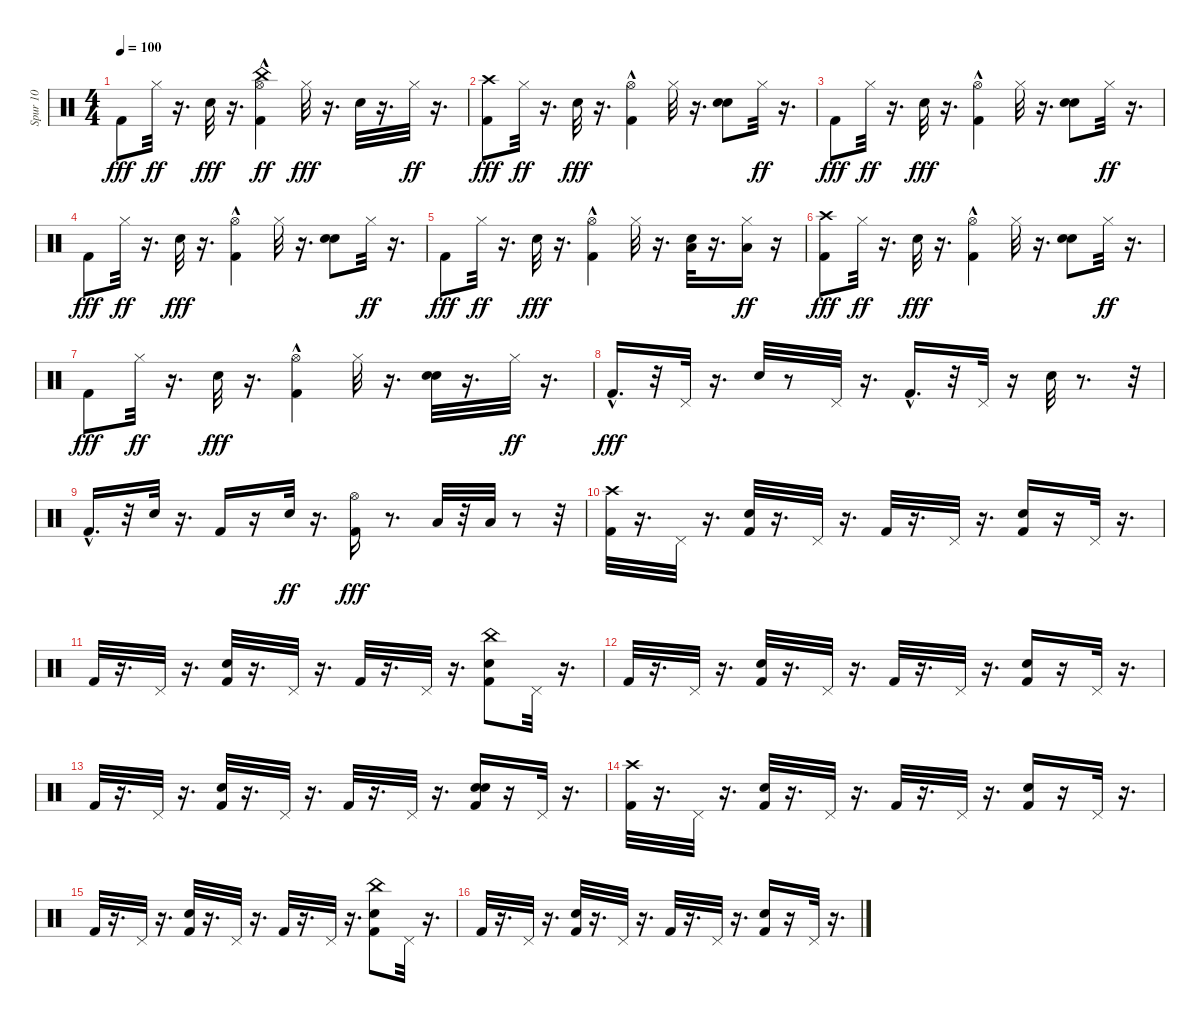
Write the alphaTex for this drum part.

\track ("Spur 10" "Spur 10") {instrument percussion}
\staff {score}
\articulation defaults
\ts (4 4)
\tempo 100
\clef neutral
\ks c "Kick (hit) 2".8{dy fff} "Hi-Hat (closed)".32{dy ff}
r.16{d} "Electric Snare (hit)".32{dy fff} r.16{d} ("Kick (hit) 2"{hac} "Hi-Hat (open)" "China (hit)"{hac}).4{dy ff} "Hi-Hat (closed)".32{dy fff} r.16{d} "Electric Snare (hit)".32 r.16{d} "Hi-Hat (closed)".32{dy ff} r.16{d} |
("Crash high (hit)" "Kick (hit) 2").8{dy fff} "Hi-Hat (closed)".32{dy ff} r.16{d} "Electric Snare (hit)".32{dy fff} r.16{d} ("Kick (hit) 2"{hac} "Hi-Hat (open)").4 "Hi-Hat (closed)".32 r.16{d} ("Electric Snare (hit)" "Electric Snare (hit)").8 "Hi-Hat (closed)".32{dy ff} r.16{d} |
"Kick (hit) 2".8{dy fff} "Hi-Hat (closed)".32{dy ff} r.16{d} "Electric Snare (hit)".32{dy fff} r.16{d} ("Kick (hit) 2"{hac} "Hi-Hat (open)").4 "Hi-Hat (closed)".32 r.16{d} ("Electric Snare (hit)" "Electric Snare (hit)").8 "Hi-Hat (closed)".32{dy ff} r.16{d} |
"Kick (hit) 2".8{dy fff} "Hi-Hat (closed)".32{dy ff} r.16{d} "Electric Snare (hit)".32{dy fff} r.16{d} ("Kick (hit) 2"{hac} "Hi-Hat (open)").4 "Hi-Hat (closed)".32 r.16{d} ("Electric Snare (hit)" "Electric Snare (hit)").8 "Hi-Hat (closed)".32{dy ff} r.16{d} |
"Kick (hit) 2".8{dy fff} "Hi-Hat (closed)".32{dy ff} r.16{d} "Electric Snare (hit)".32{dy fff} r.16{d} ("Kick (hit) 2"{hac} "Hi-Hat (open)").4 "Hi-Hat (closed)".32 r.16{d} ("Low Tom (hit)" "Electric Snare (hit)").32 r.16{d} ("Low Tom (hit)" "Hi-Hat (closed)").16{dy ff} r.16 |
("Crash high (hit)" "Kick (hit) 2").8{dy fff} "Hi-Hat (closed)".32{dy ff} r.16{d} "Electric Snare (hit)".32{dy fff} r.16{d} ("Kick (hit) 2"{hac} "Hi-Hat (open)").4 "Hi-Hat (closed)".32 r.16{d} ("Electric Snare (hit)" "Electric Snare (hit)").8 "Hi-Hat (closed)".32{dy ff} r.16{d} |
"Kick (hit) 2".8{dy fff} "Hi-Hat (closed)".32{dy ff} r.16{d} "Electric Snare (hit)".32{dy fff} r.16{d} ("Kick (hit) 2"{hac} "Hi-Hat (open)").4 "Hi-Hat (closed)".32 r.16{d} ("Electric Snare (hit)" "Electric Snare (hit)").32 r.16{d} "Hi-Hat (closed)".32{dy ff} r.16{d} |
"Kick (hit) 2"{hac}.16{d dy fff} r.32 "Pedal Hi-Hat (hit)".32 r.16{d} "Electric Snare (hit)".32 r.8 "Pedal Hi-Hat (hit)".32 r.16{d} "Kick (hit) 2"{hac}.16{d} r.32 "Pedal Hi-Hat (hit)".32 r.16 "Electric Snare (hit)".32 r.8{d} r.32 |
"Kick (hit) 2"{hac}.16{d} r.32 "Electric Snare (hit)".32 r.16{d} "Kick (hit) 2".16 r.16 "Electric Snare (hit)".32{dy ff} r.16{d} ("Kick (hit) 2" "Hi-Hat (open)").16{dy fff} r.8{d} "Low Tom (hit)".32 r.32 "Low Tom (hit)".32 r.8 r.32 |
("Crash high (hit)" "Kick (hit) 2").32 r.16{d} "Pedal Hi-Hat (hit)".32 r.16{d} ("Electric Snare (hit)" "Kick (hit) 2").32 r.16{d} "Pedal Hi-Hat (hit)".32 r.16{d} "Kick (hit) 2".32 r.16{d} "Pedal Hi-Hat (hit)".32 r.16{d} ("Electric Snare (hit)" "Kick (hit) 2").16 r.16 "Pedal Hi-Hat (hit)".32 r.16{d} |
"Kick (hit) 2".32 r.16{d} "Pedal Hi-Hat (hit)".32 r.16{d} ("Electric Snare (hit)" "Kick (hit) 2").32 r.16{d} "Pedal Hi-Hat (hit)".32 r.16{d} "Kick (hit) 2".32 r.16{d} "Pedal Hi-Hat (hit)".32 r.16{d} ("China (hit)" "Electric Snare (hit)" "Kick (hit) 2").8 "Pedal Hi-Hat (hit)".32 r.16{d} |
"Kick (hit) 2".32 r.16{d} "Pedal Hi-Hat (hit)".32 r.16{d} ("Electric Snare (hit)" "Kick (hit) 2").32 r.16{d} "Pedal Hi-Hat (hit)".32 r.16{d} "Kick (hit) 2".32 r.16{d} "Pedal Hi-Hat (hit)".32 r.16{d} ("Electric Snare (hit)" "Kick (hit) 2").16 r.16 "Pedal Hi-Hat (hit)".32 r.16{d} |
"Kick (hit) 2".32 r.16{d} "Pedal Hi-Hat (hit)".32 r.16{d} ("Electric Snare (hit)" "Kick (hit) 2").32 r.16{d} "Pedal Hi-Hat (hit)".32 r.16{d} "Kick (hit) 2".32 r.16{d} "Pedal Hi-Hat (hit)".32 r.16{d} ("Electric Snare (hit)" "Kick (hit) 2" "Snare (hit) 2").16 r.16 "Pedal Hi-Hat (hit)".32 r.16{d} |
("Kick (hit) 2" "Crash high (hit)").32 r.16{d} "Pedal Hi-Hat (hit)".32 r.16{d} ("Electric Snare (hit)" "Kick (hit) 2").32 r.16{d} "Pedal Hi-Hat (hit)".32 r.16{d} "Kick (hit) 2".32 r.16{d} "Pedal Hi-Hat (hit)".32 r.16{d} ("Electric Snare (hit)" "Kick (hit) 2").16 r.16 "Pedal Hi-Hat (hit)".32 r.16{d} |
"Kick (hit) 2".32 r.16{d} "Pedal Hi-Hat (hit)".32 r.16{d} ("Electric Snare (hit)" "Kick (hit) 2").32 r.16{d} "Pedal Hi-Hat (hit)".32 r.16{d} "Kick (hit) 2".32 r.16{d} "Pedal Hi-Hat (hit)".32 r.16{d} ("China (hit)" "Electric Snare (hit)" "Kick (hit) 2").8 "Pedal Hi-Hat (hit)".32 r.16{d} |
"Kick (hit) 2".32 r.16{d} "Pedal Hi-Hat (hit)".32 r.16{d} ("Electric Snare (hit)" "Kick (hit) 2").32 r.16{d} "Pedal Hi-Hat (hit)".32 r.16{d} "Kick (hit) 2".32 r.16{d} "Pedal Hi-Hat (hit)".32 r.16{d} ("Electric Snare (hit)" "Kick (hit) 2").16 r.16 "Pedal Hi-Hat (hit)".32 r.16{d}
